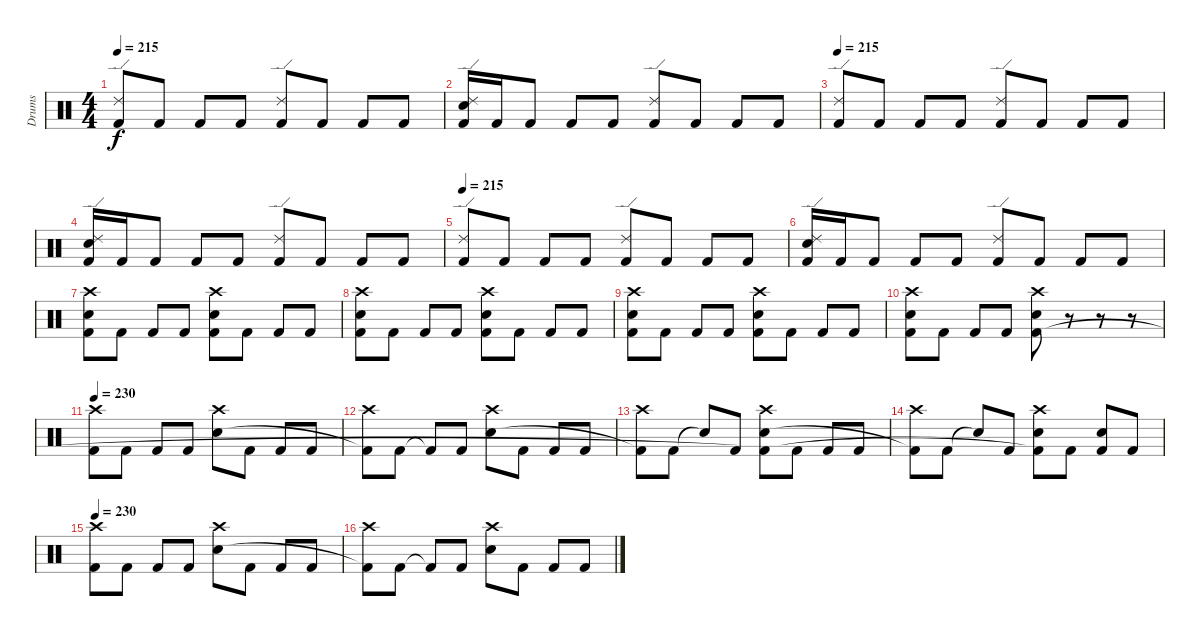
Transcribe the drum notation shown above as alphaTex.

\track ("Drums" "Drums") {instrument percussion}
\staff {score}
\articulation defaults
\ts (4 4)
\tempo 215
\clef neutral
\ks c
("Ride (edge) 2" "Kick (hit) 2").8{dy f} "Kick (hit) 2".8 "Kick (hit) 2".8 "Kick (hit) 2".8 ("Ride (edge) 2" "Kick (hit) 2").8 "Kick (hit) 2".8 "Kick (hit) 2".8 "Kick (hit) 2".8 |
("Ride (edge) 2" "Electric Snare (hit)" "Kick (hit) 2").16 "Kick (hit) 2".16 "Kick (hit) 2".8 "Kick (hit) 2".8 "Kick (hit) 2".8 ("Ride (edge) 2" "Kick (hit) 2").8 "Kick (hit) 2".8 "Kick (hit) 2".8 "Kick (hit) 2".8 |
\tempo 215
("Ride (edge) 2" "Kick (hit) 2").8 "Kick (hit) 2".8 "Kick (hit) 2".8 "Kick (hit) 2".8 ("Ride (edge) 2" "Kick (hit) 2").8 "Kick (hit) 2".8 "Kick (hit) 2".8 "Kick (hit) 2".8 |
("Ride (edge) 2" "Electric Snare (hit)" "Kick (hit) 2").16 "Kick (hit) 2".16 "Kick (hit) 2".8 "Kick (hit) 2".8 "Kick (hit) 2".8 ("Ride (edge) 2" "Kick (hit) 2").8 "Kick (hit) 2".8 "Kick (hit) 2".8 "Kick (hit) 2".8 |
\tempo 215
("Ride (edge) 2" "Kick (hit) 2").8 "Kick (hit) 2".8 "Kick (hit) 2".8 "Kick (hit) 2".8 ("Ride (edge) 2" "Kick (hit) 2").8 "Kick (hit) 2".8 "Kick (hit) 2".8 "Kick (hit) 2".8 |
("Ride (edge) 2" "Electric Snare (hit)" "Kick (hit) 2").16 "Kick (hit) 2".16 "Kick (hit) 2".8 "Kick (hit) 2".8 "Kick (hit) 2".8 ("Ride (edge) 2" "Kick (hit) 2").8 "Kick (hit) 2".8 "Kick (hit) 2".8 "Kick (hit) 2".8 |
("Crash high (hit)" "Electric Snare (hit)" "Kick (hit) 2").8 "Kick (hit) 2".8 "Kick (hit) 2".8 "Kick (hit) 2".8 ("Crash high (hit)" "Electric Snare (hit)" "Kick (hit) 2").8 "Kick (hit) 2".8 "Kick (hit) 2".8 "Kick (hit) 2".8 |
("Crash high (hit)" "Electric Snare (hit)" "Kick (hit) 2").8 "Kick (hit) 2".8 "Kick (hit) 2".8 "Kick (hit) 2".8 ("Crash high (hit)" "Electric Snare (hit)" "Kick (hit) 2").8 "Kick (hit) 2".8 "Kick (hit) 2".8 "Kick (hit) 2".8 |
("Crash high (hit)" "Electric Snare (hit)" "Kick (hit) 2").8 "Kick (hit) 2".8 "Kick (hit) 2".8 "Kick (hit) 2".8 ("Crash high (hit)" "Electric Snare (hit)" "Kick (hit) 2").8 "Kick (hit) 2".8 "Kick (hit) 2".8 "Kick (hit) 2".8 |
("Crash high (hit)" "Electric Snare (hit)" "Kick (hit) 2").8 "Kick (hit) 2".8 "Kick (hit) 2".8 "Kick (hit) 2".8 ("Crash high (hit)" "Electric Snare (hit)" "Kick (hit) 2").8 r.8 r.8 r.8 |
\tempo 230
("Crash high (hit)" "Kick (hit) 2").8 "Kick (hit) 2".8 "Kick (hit) 2".8 "Kick (hit) 2".8 ("Crash high (hit)" "Electric Snare (hit)").8 "Kick (hit) 2".8 "Kick (hit) 2".8 "Kick (hit) 2".8 |
("Crash high (hit)" "Kick (hit) 2"{t}).8 "Kick (hit) 2".8 "Kick (hit) 2"{t}.8 "Kick (hit) 2".8 ("Crash high (hit)" "Electric Snare (hit)").8 "Kick (hit) 2".8 "Kick (hit) 2".8 "Kick (hit) 2".8 |
("Crash high (hit)" "Kick (hit) 2"{t}).8 "Kick (hit) 2".8 "Snare (hit)"{t}.8 "Kick (hit) 2".8 ("Crash high (hit)" "Electric Snare (hit)" "Kick (hit) 2"{t}).8 "Kick (hit) 2".8 "Kick (hit) 2".8 "Kick (hit) 2".8 |
("Crash high (hit)" "Kick (hit) 2"{t}).8 "Kick (hit) 2".8 "Snare (hit)"{t}.8 "Kick (hit) 2".8 ("Crash high (hit)" "Electric Snare (hit)" "Kick (hit) 2"{t}).8 "Kick (hit) 2".8 ("Electric Snare (hit)" "Kick (hit) 2").8 "Kick (hit) 2".8 |
\tempo 230
("Crash high (hit)" "Kick (hit) 2").8 "Kick (hit) 2".8 "Kick (hit) 2".8 "Kick (hit) 2".8 ("Crash high (hit)" "Electric Snare (hit)").8 "Kick (hit) 2".8 "Kick (hit) 2".8 "Kick (hit) 2".8 |
("Crash high (hit)" "Kick (hit) 2"{t}).8 "Kick (hit) 2".8 "Kick (hit) 2"{t}.8 "Kick (hit) 2".8 ("Crash high (hit)" "Electric Snare (hit)").8 "Kick (hit) 2".8 "Kick (hit) 2".8 "Kick (hit) 2".8
